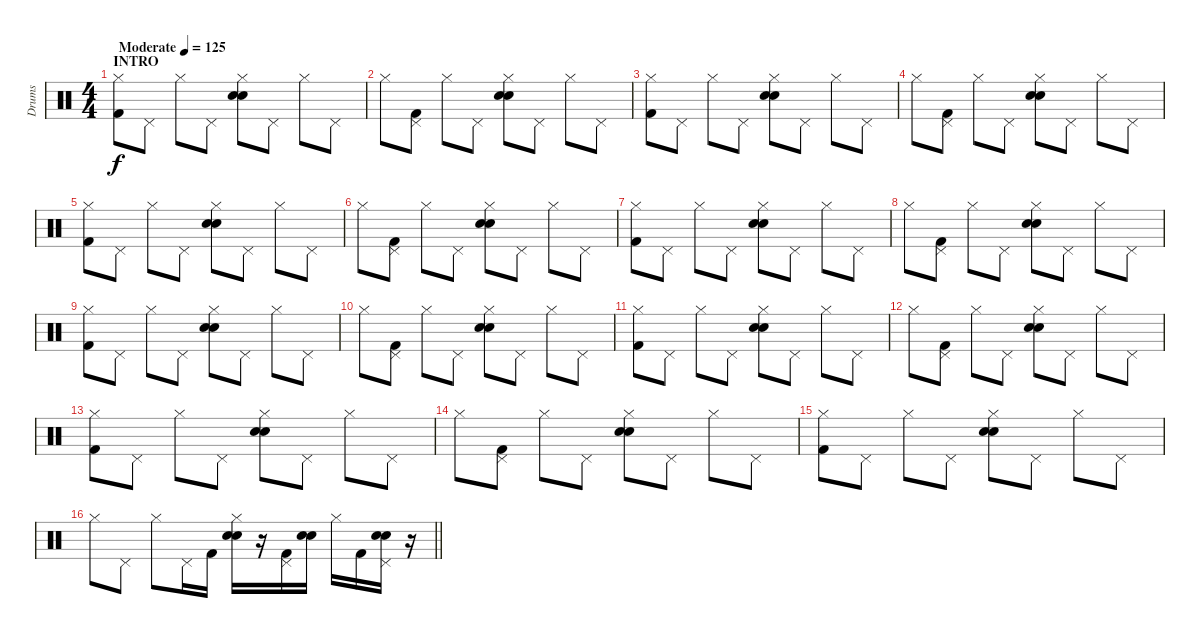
\track ("Drums" "Drums") {instrument percussion}
\staff {score}
\articulation defaults
\ts (4 4)
\section ("" "INTRO")
\tempo (125 "Moderate")
\clef neutral
\ks c
("Hi-Hat (closed)" "Kick (hit) 2").8{dy f} "Pedal Hi-Hat (hit)".8 "Hi-Hat (closed)".8 "Pedal Hi-Hat (hit)".8 ("Hi-Hat (closed)" "Snare (hit) 2" "Electric Snare (hit)").8 "Pedal Hi-Hat (hit)".8 "Hi-Hat (closed)".8 "Pedal Hi-Hat (hit)".8 |
"Hi-Hat (closed)".8 ("Pedal Hi-Hat (hit)" "Kick (hit) 2").8 "Hi-Hat (closed)".8 "Pedal Hi-Hat (hit)".8 ("Hi-Hat (closed)" "Snare (hit) 2" "Electric Snare (hit)").8 "Pedal Hi-Hat (hit)".8 "Hi-Hat (closed)".8 "Pedal Hi-Hat (hit)".8 |
("Hi-Hat (closed)" "Kick (hit) 2").8 "Pedal Hi-Hat (hit)".8 "Hi-Hat (closed)".8 "Pedal Hi-Hat (hit)".8 ("Hi-Hat (closed)" "Snare (hit) 2" "Electric Snare (hit)").8 "Pedal Hi-Hat (hit)".8 "Hi-Hat (closed)".8 "Pedal Hi-Hat (hit)".8 |
"Hi-Hat (closed)".8 ("Pedal Hi-Hat (hit)" "Kick (hit) 2").8 "Hi-Hat (closed)".8 "Pedal Hi-Hat (hit)".8 ("Hi-Hat (closed)" "Snare (hit) 2" "Electric Snare (hit)").8 "Pedal Hi-Hat (hit)".8 "Hi-Hat (closed)".8 "Pedal Hi-Hat (hit)".8 |
("Hi-Hat (closed)" "Kick (hit) 2").8 "Pedal Hi-Hat (hit)".8 "Hi-Hat (closed)".8 "Pedal Hi-Hat (hit)".8 ("Hi-Hat (closed)" "Snare (hit) 2" "Electric Snare (hit)").8 "Pedal Hi-Hat (hit)".8 "Hi-Hat (closed)".8 "Pedal Hi-Hat (hit)".8 |
"Hi-Hat (closed)".8 ("Pedal Hi-Hat (hit)" "Kick (hit) 2").8 "Hi-Hat (closed)".8 "Pedal Hi-Hat (hit)".8 ("Hi-Hat (closed)" "Snare (hit) 2" "Electric Snare (hit)").8 "Pedal Hi-Hat (hit)".8 "Hi-Hat (closed)".8 "Pedal Hi-Hat (hit)".8 |
("Hi-Hat (closed)" "Kick (hit) 2").8 "Pedal Hi-Hat (hit)".8 "Hi-Hat (closed)".8 "Pedal Hi-Hat (hit)".8 ("Hi-Hat (closed)" "Snare (hit) 2" "Electric Snare (hit)").8 "Pedal Hi-Hat (hit)".8 "Hi-Hat (closed)".8 "Pedal Hi-Hat (hit)".8 |
"Hi-Hat (closed)".8 ("Pedal Hi-Hat (hit)" "Kick (hit) 2").8 "Hi-Hat (closed)".8 "Pedal Hi-Hat (hit)".8 ("Hi-Hat (closed)" "Snare (hit) 2" "Electric Snare (hit)").8 "Pedal Hi-Hat (hit)".8 "Hi-Hat (closed)".8 "Pedal Hi-Hat (hit)".8 |
("Hi-Hat (closed)" "Kick (hit) 2").8 "Pedal Hi-Hat (hit)".8 "Hi-Hat (closed)".8 "Pedal Hi-Hat (hit)".8 ("Hi-Hat (closed)" "Snare (hit) 2" "Electric Snare (hit)").8 "Pedal Hi-Hat (hit)".8 "Hi-Hat (closed)".8 "Pedal Hi-Hat (hit)".8 |
"Hi-Hat (closed)".8 ("Pedal Hi-Hat (hit)" "Kick (hit) 2").8 "Hi-Hat (closed)".8 "Pedal Hi-Hat (hit)".8 ("Hi-Hat (closed)" "Snare (hit) 2" "Electric Snare (hit)").8 "Pedal Hi-Hat (hit)".8 "Hi-Hat (closed)".8 "Pedal Hi-Hat (hit)".8 |
("Hi-Hat (closed)" "Kick (hit) 2").8 "Pedal Hi-Hat (hit)".8 "Hi-Hat (closed)".8 "Pedal Hi-Hat (hit)".8 ("Hi-Hat (closed)" "Snare (hit) 2" "Electric Snare (hit)").8 "Pedal Hi-Hat (hit)".8 "Hi-Hat (closed)".8 "Pedal Hi-Hat (hit)".8 |
"Hi-Hat (closed)".8 ("Pedal Hi-Hat (hit)" "Kick (hit) 2").8 "Hi-Hat (closed)".8 "Pedal Hi-Hat (hit)".8 ("Hi-Hat (closed)" "Snare (hit) 2" "Electric Snare (hit)").8 "Pedal Hi-Hat (hit)".8 "Hi-Hat (closed)".8 "Pedal Hi-Hat (hit)".8 |
("Hi-Hat (closed)" "Kick (hit) 2").8 "Pedal Hi-Hat (hit)".8 "Hi-Hat (closed)".8 "Pedal Hi-Hat (hit)".8 ("Hi-Hat (closed)" "Snare (hit) 2" "Electric Snare (hit)").8 "Pedal Hi-Hat (hit)".8 "Hi-Hat (closed)".8 "Pedal Hi-Hat (hit)".8 |
"Hi-Hat (closed)".8 ("Pedal Hi-Hat (hit)" "Kick (hit) 2").8 "Hi-Hat (closed)".8 "Pedal Hi-Hat (hit)".8 ("Hi-Hat (closed)" "Snare (hit) 2" "Electric Snare (hit)").8 "Pedal Hi-Hat (hit)".8 "Hi-Hat (closed)".8 "Pedal Hi-Hat (hit)".8 |
("Hi-Hat (closed)" "Kick (hit) 2").8 "Pedal Hi-Hat (hit)".8 "Hi-Hat (closed)".8 "Pedal Hi-Hat (hit)".8 ("Hi-Hat (closed)" "Snare (hit) 2" "Electric Snare (hit)").8 "Pedal Hi-Hat (hit)".8 "Hi-Hat (closed)".8 "Pedal Hi-Hat (hit)".8 |
\barLineRight lightlight "Hi-Hat (closed)".8 "Pedal Hi-Hat (hit)".8 "Hi-Hat (closed)".8 "Pedal Hi-Hat (hit)".16 "Kick (hit) 2".16
("Hi-Hat (closed)" "Snare (hit) 2" "Electric Snare (hit)").16 r.16 ("Pedal Hi-Hat (hit)" "Kick (hit) 2").16 ("Snare (hit) 2" "Electric Snare (hit)").16 "Hi-Hat (closed)".16 "Kick (hit) 2".16 ("Pedal Hi-Hat (hit)" "Snare (hit) 2" "Electric Snare (hit)").16 r.16
